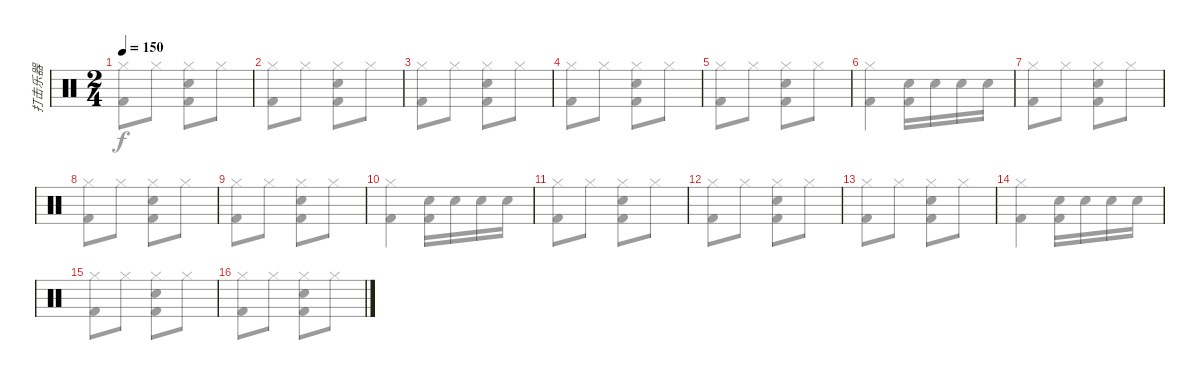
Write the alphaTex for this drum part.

\track ("打击乐器" "打击乐器") {instrument percussion bank 10}
\staff {score}
\articulation defaults
\voice
\ts (2 4)
\tempo 150
\clef neutral
\ks c
|
|
|
|
|
|
|
|
|
|
|
|
|
|
|
\voice
\clef neutral
\ks c
("Hi-Hat (closed)" "Kick (hit) 2").8{dy f} "Hi-Hat (closed)".8 ("Hi-Hat (closed)" "Electric Snare (hit)" "Kick (hit) 2").8 "Hi-Hat (closed)".8 |
("Hi-Hat (closed)" "Kick (hit) 2").8 "Hi-Hat (closed)".8 ("Hi-Hat (closed)" "Electric Snare (hit)" "Kick (hit) 2").8 "Hi-Hat (closed)".8 |
("Hi-Hat (closed)" "Kick (hit) 2").8 "Hi-Hat (closed)".8 ("Hi-Hat (closed)" "Electric Snare (hit)" "Kick (hit) 2").8 "Hi-Hat (closed)".8 |
("Hi-Hat (closed)" "Kick (hit) 2").8 "Hi-Hat (closed)".8 ("Hi-Hat (closed)" "Electric Snare (hit)" "Kick (hit) 2").8 "Hi-Hat (closed)".8 |
("Hi-Hat (closed)" "Kick (hit) 2").8 "Hi-Hat (closed)".8 ("Hi-Hat (closed)" "Electric Snare (hit)" "Kick (hit) 2").8 "Hi-Hat (closed)".8 |
("Hi-Hat (closed)" "Kick (hit) 2").4 ("Electric Snare (hit)" "Kick (hit) 2").16 "Electric Snare (hit)".16 "Electric Snare (hit)".16 "Electric Snare (hit)".16 |
("Hi-Hat (closed)" "Kick (hit) 2").8 "Hi-Hat (closed)".8 ("Hi-Hat (closed)" "Electric Snare (hit)" "Kick (hit) 2").8 "Hi-Hat (closed)".8 |
("Hi-Hat (closed)" "Kick (hit) 2").8 "Hi-Hat (closed)".8 ("Hi-Hat (closed)" "Electric Snare (hit)" "Kick (hit) 2").8 "Hi-Hat (closed)".8 |
("Hi-Hat (closed)" "Kick (hit) 2").8 "Hi-Hat (closed)".8 ("Hi-Hat (closed)" "Electric Snare (hit)" "Kick (hit) 2").8 "Hi-Hat (closed)".8 |
("Hi-Hat (closed)" "Kick (hit) 2").4 ("Electric Snare (hit)" "Kick (hit) 2").16 "Electric Snare (hit)".16 "Electric Snare (hit)".16 "Electric Snare (hit)".16 |
("Hi-Hat (closed)" "Kick (hit) 2").8 "Hi-Hat (closed)".8 ("Hi-Hat (closed)" "Electric Snare (hit)" "Kick (hit) 2").8 "Hi-Hat (closed)".8 |
("Hi-Hat (closed)" "Kick (hit) 2").8 "Hi-Hat (closed)".8 ("Hi-Hat (closed)" "Electric Snare (hit)" "Kick (hit) 2").8 "Hi-Hat (closed)".8 |
("Hi-Hat (closed)" "Kick (hit) 2").8 "Hi-Hat (closed)".8 ("Hi-Hat (closed)" "Electric Snare (hit)" "Kick (hit) 2").8 "Hi-Hat (closed)".8 |
("Hi-Hat (closed)" "Kick (hit) 2").4 ("Electric Snare (hit)" "Kick (hit) 2").16 "Electric Snare (hit)".16 "Electric Snare (hit)".16 "Electric Snare (hit)".16 |
("Hi-Hat (closed)" "Kick (hit) 2").8 "Hi-Hat (closed)".8 ("Hi-Hat (closed)" "Electric Snare (hit)" "Kick (hit) 2").8 "Hi-Hat (closed)".8 |
("Hi-Hat (closed)" "Kick (hit) 2").8 "Hi-Hat (closed)".8 ("Hi-Hat (closed)" "Electric Snare (hit)" "Kick (hit) 2").8 "Hi-Hat (closed)".8
